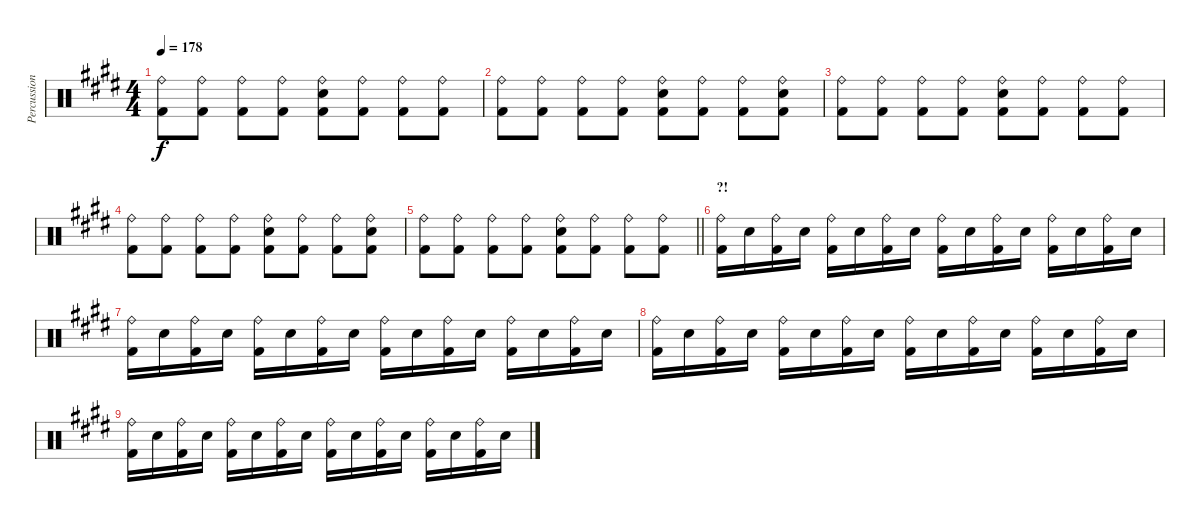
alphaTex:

\track ("Percussion" "Percussion") {instrument percussion}
\staff {score}
\articulation defaults
\ts (4 4)
\tempo 178
\clef neutral
\ks e
("Ride (bell)" "Kick (hit) 2").8{dy f} ("Ride (bell)" "Kick (hit) 2").8 ("Ride (bell)" "Kick (hit) 2").8 ("Ride (bell)" "Kick (hit) 2").8 ("Ride (bell)" "Electric Snare (hit)" "Kick (hit) 2").8 ("Ride (bell)" "Kick (hit) 2").8 ("Ride (bell)" "Kick (hit) 2").8 ("Ride (bell)" "Kick (hit) 2").8 |
("Ride (bell)" "Kick (hit) 2").8 ("Ride (bell)" "Kick (hit) 2").8 ("Ride (bell)" "Kick (hit) 2").8 ("Ride (bell)" "Kick (hit) 2").8 ("Ride (bell)" "Electric Snare (hit)" "Kick (hit) 2").8 ("Ride (bell)" "Kick (hit) 2").8 ("Ride (bell)" "Kick (hit) 2").8 ("Ride (bell)" "Electric Snare (hit)" "Kick (hit) 2").8 |
("Ride (bell)" "Kick (hit) 2").8 ("Ride (bell)" "Kick (hit) 2").8 ("Ride (bell)" "Kick (hit) 2").8 ("Ride (bell)" "Kick (hit) 2").8 ("Ride (bell)" "Electric Snare (hit)" "Kick (hit) 2").8 ("Ride (bell)" "Kick (hit) 2").8 ("Ride (bell)" "Kick (hit) 2").8 ("Ride (bell)" "Kick (hit) 2").8 |
("Ride (bell)" "Kick (hit) 2").8 ("Ride (bell)" "Kick (hit) 2").8 ("Ride (bell)" "Kick (hit) 2").8 ("Ride (bell)" "Kick (hit) 2").8 ("Ride (bell)" "Electric Snare (hit)" "Kick (hit) 2").8 ("Ride (bell)" "Kick (hit) 2").8 ("Ride (bell)" "Kick (hit) 2").8 ("Ride (bell)" "Electric Snare (hit)" "Kick (hit) 2").8 |
\barLineRight lightlight
("Ride (bell)" "Kick (hit) 2").8 ("Ride (bell)" "Kick (hit) 2").8 ("Ride (bell)" "Kick (hit) 2").8 ("Ride (bell)" "Kick (hit) 2").8 ("Ride (bell)" "Electric Snare (hit)" "Kick (hit) 2").8 ("Ride (bell)" "Kick (hit) 2").8 ("Ride (bell)" "Kick (hit) 2").8 ("Ride (bell)" "Kick (hit) 2").8 |
\section ("" "?!")
("Ride (bell)" "Kick (hit) 2").16 "Electric Snare (hit)".16 ("Ride (bell)" "Kick (hit) 2").16 "Electric Snare (hit)".16 ("Ride (bell)" "Kick (hit) 2").16 "Electric Snare (hit)".16 ("Ride (bell)" "Kick (hit) 2").16 "Electric Snare (hit)".16 ("Ride (bell)" "Kick (hit) 2").16 "Electric Snare (hit)".16 ("Ride (bell)" "Kick (hit) 2").16 "Electric Snare (hit)".16 ("Ride (bell)" "Kick (hit) 2").16 "Electric Snare (hit)".16 ("Ride (bell)" "Kick (hit) 2").16 "Electric Snare (hit)".16 |
("Ride (bell)" "Kick (hit) 2").16 "Electric Snare (hit)".16 ("Ride (bell)" "Kick (hit) 2").16 "Electric Snare (hit)".16 ("Ride (bell)" "Kick (hit) 2").16 "Electric Snare (hit)".16 ("Ride (bell)" "Kick (hit) 2").16 "Electric Snare (hit)".16 ("Ride (bell)" "Kick (hit) 2").16 "Electric Snare (hit)".16 ("Ride (bell)" "Kick (hit) 2").16 "Electric Snare (hit)".16 ("Ride (bell)" "Kick (hit) 2").16 "Electric Snare (hit)".16 ("Ride (bell)" "Kick (hit) 2").16 "Electric Snare (hit)".16 |
("Ride (bell)" "Kick (hit) 2").16 "Electric Snare (hit)".16 ("Ride (bell)" "Kick (hit) 2").16 "Electric Snare (hit)".16 ("Ride (bell)" "Kick (hit) 2").16 "Electric Snare (hit)".16 ("Ride (bell)" "Kick (hit) 2").16 "Electric Snare (hit)".16 ("Ride (bell)" "Kick (hit) 2").16 "Electric Snare (hit)".16 ("Ride (bell)" "Kick (hit) 2").16 "Electric Snare (hit)".16 ("Ride (bell)" "Kick (hit) 2").16 "Electric Snare (hit)".16 ("Ride (bell)" "Kick (hit) 2").16 "Electric Snare (hit)".16 |
("Ride (bell)" "Kick (hit) 2").16 "Electric Snare (hit)".16 ("Ride (bell)" "Kick (hit) 2").16 "Electric Snare (hit)".16 ("Ride (bell)" "Kick (hit) 2").16 "Electric Snare (hit)".16 ("Ride (bell)" "Kick (hit) 2").16 "Electric Snare (hit)".16 ("Ride (bell)" "Kick (hit) 2").16 "Electric Snare (hit)".16 ("Ride (bell)" "Kick (hit) 2").16 "Electric Snare (hit)".16 ("Ride (bell)" "Kick (hit) 2").16 "Electric Snare (hit)".16 ("Ride (bell)" "Kick (hit) 2").16 "Electric Snare (hit)".16
